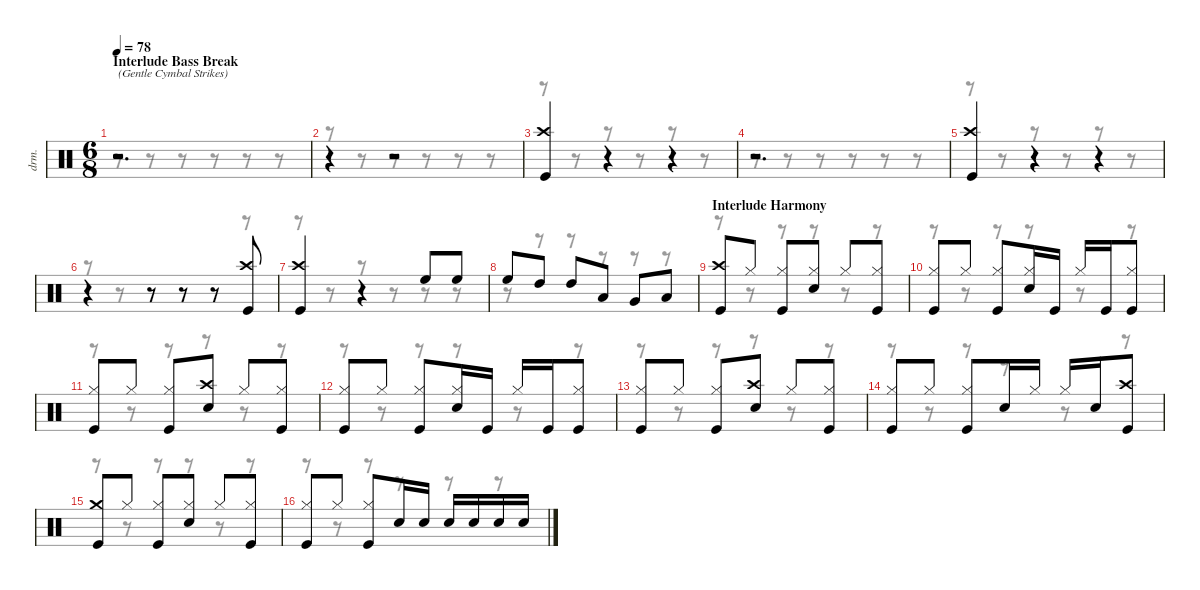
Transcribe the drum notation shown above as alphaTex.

\defaultSystemsLayout 4
\hideDynamics
\bracketExtendMode nobrackets
\track ("Lars Ulrich - Drums" "drm.") {instrument percussion}
\staff {score}
\articulation defaults
\voice
\ts (6 8)
\beaming (8 2 2 2 2)
\section ("" "Interlude Bass Break")
\tempo 78
\clef neutral
\ks c
r.2{d txt "(Gentle Cymbal Strikes)" dy ppp} |
r.4 r.2 |
("Crash high (hit)" "Kick (hit)").4{dy p} r.4 r.4 |
r.2{d} |
("Crash high (hit)" "Kick (hit)").4 r.4 r.4 |
r.4 r.8 r.8 r.8 ("Crash high (hit)" "Kick (hit)").8 |
("Crash high (hit)" "Kick (hit)").4 r.4 "High Floor Tom (hit)".8 "High Floor Tom (hit)".8{dy mp} |
"High Floor Tom (hit)".8{dy mf} "High Tom (hit)".8 "High Tom (hit)".8 "Low Tom (hit)".8{dy f} "Very Low Tom (hit)".8 "Low Floor Tom (hit)".8 |
\section ("" "Interlude Harmony")
("Crash high (hit)" "Kick (hit)").8 "Hi-Hat (closed)".8 ("Hi-Hat (closed)" "Kick (hit)").8 ("Hi-Hat (closed)" "Snare (hit) 2").8 "Hi-Hat (closed)".8 ("Hi-Hat (closed)" "Kick (hit)").8 |
("Hi-Hat (closed)" "Kick (hit)").8 "Hi-Hat (closed)".8 ("Hi-Hat (closed)" "Kick (hit)").8 ("Hi-Hat (closed)" "Snare (hit) 2").16 "Kick (hit)".16 "Hi-Hat (closed)".16 "Kick (hit)".16 ("Hi-Hat (closed)" "Kick (hit)").8 |
("Hi-Hat (closed)" "Kick (hit)").8 "Hi-Hat (closed)".8 ("Hi-Hat (closed)" "Kick (hit)").8 ("Crash high (hit)" "Snare (hit) 2").8 "Hi-Hat (closed)".8 ("Hi-Hat (closed)" "Kick (hit)").8 |
("Hi-Hat (closed)" "Kick (hit)").8 "Hi-Hat (closed)".8 ("Hi-Hat (closed)" "Kick (hit)").8 ("Hi-Hat (closed)" "Snare (hit) 2").16 "Kick (hit)".16 "Hi-Hat (closed)".16 "Kick (hit)".16 ("Hi-Hat (closed)" "Kick (hit)").8 |
("Hi-Hat (closed)" "Kick (hit)").8 "Hi-Hat (closed)".8 ("Hi-Hat (closed)" "Kick (hit)").8 ("Crash high (hit)" "Snare (hit) 2").8 "Hi-Hat (closed)".8 ("Hi-Hat (closed)" "Kick (hit)").8 |
("Hi-Hat (closed)" "Kick (hit)").8 "Hi-Hat (closed)".8 ("Hi-Hat (closed)" "Kick (hit)").8 "Snare (hit) 2".16 "Hi-Hat (closed)".16 "Hi-Hat (closed)".16 "Snare (hit) 2".16 ("Crash high (hit)" "Kick (hit)").8 |
("Crash medium (hit)" "Kick (hit)").8 "Hi-Hat (closed)".8 ("Hi-Hat (closed)" "Kick (hit)").8 ("Hi-Hat (closed)" "Snare (hit) 2").8 "Hi-Hat (closed)".8 ("Hi-Hat (closed)" "Kick (hit)").8 |
("Hi-Hat (closed)" "Kick (hit)").8 "Hi-Hat (closed)".8 ("Hi-Hat (closed)" "Kick (hit)").8 "Snare (hit) 2".16{dy mp} "Snare (hit) 2".16 "Snare (hit) 2".16{dy mf} "Snare (hit) 2".16 "Snare (hit) 2".16{dy f} "Snare (hit) 2".16
\voice
\clef neutral
\ottava regular
\simile none
\ks c
r.8{dy mf} r.8 r.8 r.8 r.8 r.8 |
r.8 r.8 r.8 r.8 r.8 r.8 |
r.8 r.8 r.8 r.8 r.8 r.8 |
r.8 r.8 r.8 r.8 r.8 r.8 |
r.8 r.8 r.8 r.8 r.8 r.8 |
r.8 r.8 r.8 r.8 r.8 r.8 |
r.8 r.8 r.8 r.8 r.8 r.8 |
r.8 r.8 r.8 r.8 r.8 r.8 |
r.8 r.8 r.8 r.8 r.8 r.8 |
r.8 r.8 r.8 r.8 r.8 r.8 |
r.8 r.8 r.8 r.8 r.8 r.8 |
r.8 r.8 r.8 r.8 r.8 r.8 |
r.8 r.8 r.8 r.8 r.8 r.8 |
r.8 r.8 r.8 r.8 r.8 r.8 |
r.8 r.8 r.8 r.8 r.8 r.8 |
r.8 r.8 r.8 r.8 r.8 r.8
